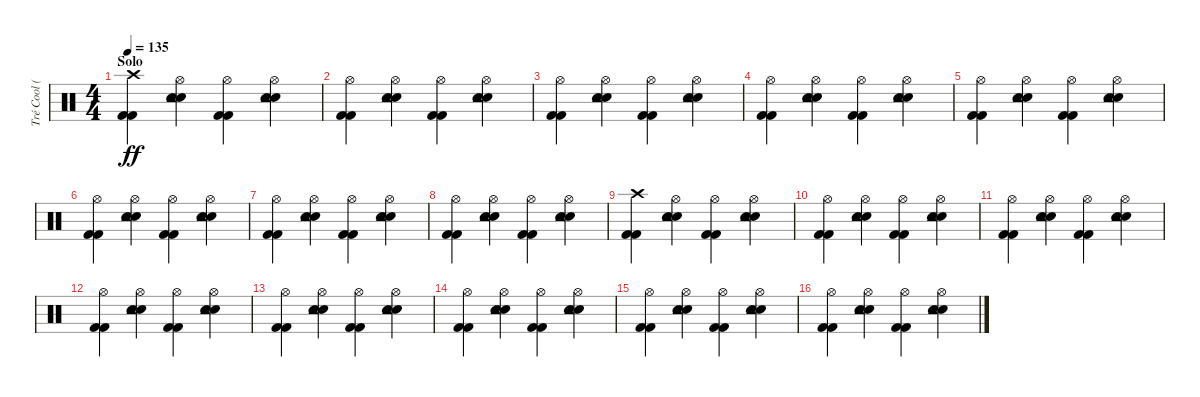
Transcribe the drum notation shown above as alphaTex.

\track ("Tré Cool (Drums)" "Tré Cool (") {instrument percussion}
\staff {score}
\articulation defaults
\ts (4 4)
\section ("" "Solo")
\tempo 135
\clef neutral
\ks c
("Kick (hit) 2" "Kick (hit) 2" "Crash high (hit)").4{dy ff} ("Snare (hit) 2" "Snare (hit) 2" "Tambourine (hit)" "Hi-Hat (open)").4 ("Kick (hit) 2" "Kick (hit) 2" "Hi-Hat (open)").4 ("Snare (hit) 2" "Snare (hit) 2" "Tambourine (hit)" "Hi-Hat (open)").4 |
("Kick (hit) 2" "Kick (hit) 2" "Hi-Hat (open)").4 ("Snare (hit) 2" "Snare (hit) 2" "Tambourine (hit)" "Hi-Hat (open)").4 ("Kick (hit) 2" "Kick (hit) 2" "Hi-Hat (open)").4 ("Snare (hit) 2" "Snare (hit) 2" "Tambourine (hit)" "Hi-Hat (open)").4 |
("Kick (hit) 2" "Kick (hit) 2" "Hi-Hat (open)").4 ("Snare (hit) 2" "Snare (hit) 2" "Tambourine (hit)" "Hi-Hat (open)").4 ("Kick (hit) 2" "Kick (hit) 2" "Hi-Hat (open)").4 ("Snare (hit) 2" "Snare (hit) 2" "Tambourine (hit)" "Hi-Hat (open)").4 |
("Kick (hit) 2" "Kick (hit) 2" "Hi-Hat (open)").4 ("Snare (hit) 2" "Snare (hit) 2" "Tambourine (hit)" "Hi-Hat (open)").4 ("Kick (hit) 2" "Kick (hit) 2" "Hi-Hat (open)").4 ("Snare (hit) 2" "Snare (hit) 2" "Tambourine (hit)" "Hi-Hat (open)").4 |
("Kick (hit) 2" "Kick (hit) 2" "Hi-Hat (open)").4 ("Snare (hit) 2" "Snare (hit) 2" "Tambourine (hit)" "Hi-Hat (open)").4 ("Kick (hit) 2" "Kick (hit) 2" "Hi-Hat (open)").4 ("Snare (hit) 2" "Snare (hit) 2" "Tambourine (hit)" "Hi-Hat (open)").4 |
("Kick (hit) 2" "Kick (hit) 2" "Hi-Hat (open)").4 ("Snare (hit) 2" "Snare (hit) 2" "Tambourine (hit)" "Hi-Hat (open)").4 ("Kick (hit) 2" "Kick (hit) 2" "Hi-Hat (open)").4 ("Snare (hit) 2" "Snare (hit) 2" "Tambourine (hit)" "Hi-Hat (open)").4 |
("Kick (hit) 2" "Kick (hit) 2" "Hi-Hat (open)").4 ("Snare (hit) 2" "Snare (hit) 2" "Tambourine (hit)" "Hi-Hat (open)").4 ("Kick (hit) 2" "Kick (hit) 2" "Hi-Hat (open)").4 ("Snare (hit) 2" "Snare (hit) 2" "Tambourine (hit)" "Hi-Hat (open)").4 |
("Kick (hit) 2" "Kick (hit) 2" "Hi-Hat (open)").4 ("Snare (hit) 2" "Snare (hit) 2" "Tambourine (hit)" "Hi-Hat (open)").4 ("Kick (hit) 2" "Kick (hit) 2" "Hi-Hat (open)").4 ("Snare (hit) 2" "Snare (hit) 2" "Tambourine (hit)" "Hi-Hat (open)").4 |
("Kick (hit) 2" "Kick (hit) 2" "Crash high (hit)").4 ("Snare (hit) 2" "Snare (hit) 2" "Tambourine (hit)" "Hi-Hat (open)").4 ("Kick (hit) 2" "Kick (hit) 2" "Hi-Hat (open)").4 ("Snare (hit) 2" "Snare (hit) 2" "Tambourine (hit)" "Hi-Hat (open)").4 |
("Kick (hit) 2" "Kick (hit) 2" "Hi-Hat (open)").4 ("Snare (hit) 2" "Snare (hit) 2" "Tambourine (hit)" "Hi-Hat (open)").4 ("Kick (hit) 2" "Kick (hit) 2" "Hi-Hat (open)").4 ("Snare (hit) 2" "Snare (hit) 2" "Tambourine (hit)" "Hi-Hat (open)").4 |
("Kick (hit) 2" "Kick (hit) 2" "Hi-Hat (open)").4 ("Snare (hit) 2" "Snare (hit) 2" "Tambourine (hit)" "Hi-Hat (open)").4 ("Kick (hit) 2" "Kick (hit) 2" "Hi-Hat (open)").4 ("Snare (hit) 2" "Snare (hit) 2" "Tambourine (hit)" "Hi-Hat (open)").4 |
("Kick (hit) 2" "Kick (hit) 2" "Hi-Hat (open)").4 ("Snare (hit) 2" "Snare (hit) 2" "Tambourine (hit)" "Hi-Hat (open)").4 ("Kick (hit) 2" "Kick (hit) 2" "Hi-Hat (open)").4 ("Snare (hit) 2" "Snare (hit) 2" "Tambourine (hit)" "Hi-Hat (open)").4 |
("Kick (hit) 2" "Kick (hit) 2" "Hi-Hat (open)").4 ("Snare (hit) 2" "Snare (hit) 2" "Tambourine (hit)" "Hi-Hat (open)").4 ("Kick (hit) 2" "Kick (hit) 2" "Hi-Hat (open)").4 ("Snare (hit) 2" "Snare (hit) 2" "Tambourine (hit)" "Hi-Hat (open)").4 |
("Kick (hit) 2" "Kick (hit) 2" "Hi-Hat (open)").4 ("Snare (hit) 2" "Snare (hit) 2" "Tambourine (hit)" "Hi-Hat (open)").4 ("Kick (hit) 2" "Kick (hit) 2" "Hi-Hat (open)").4 ("Snare (hit) 2" "Snare (hit) 2" "Tambourine (hit)" "Hi-Hat (open)").4 |
("Kick (hit) 2" "Kick (hit) 2" "Hi-Hat (open)").4 ("Snare (hit) 2" "Snare (hit) 2" "Tambourine (hit)" "Hi-Hat (open)").4 ("Kick (hit) 2" "Kick (hit) 2" "Hi-Hat (open)").4 ("Snare (hit) 2" "Snare (hit) 2" "Tambourine (hit)" "Hi-Hat (open)").4 |
("Kick (hit) 2" "Kick (hit) 2" "Hi-Hat (open)").4 ("Snare (hit) 2" "Snare (hit) 2" "Tambourine (hit)" "Hi-Hat (open)").4 ("Kick (hit) 2" "Kick (hit) 2" "Hi-Hat (open)").4 ("Snare (hit) 2" "Snare (hit) 2" "Tambourine (hit)" "Hi-Hat (open)").4
